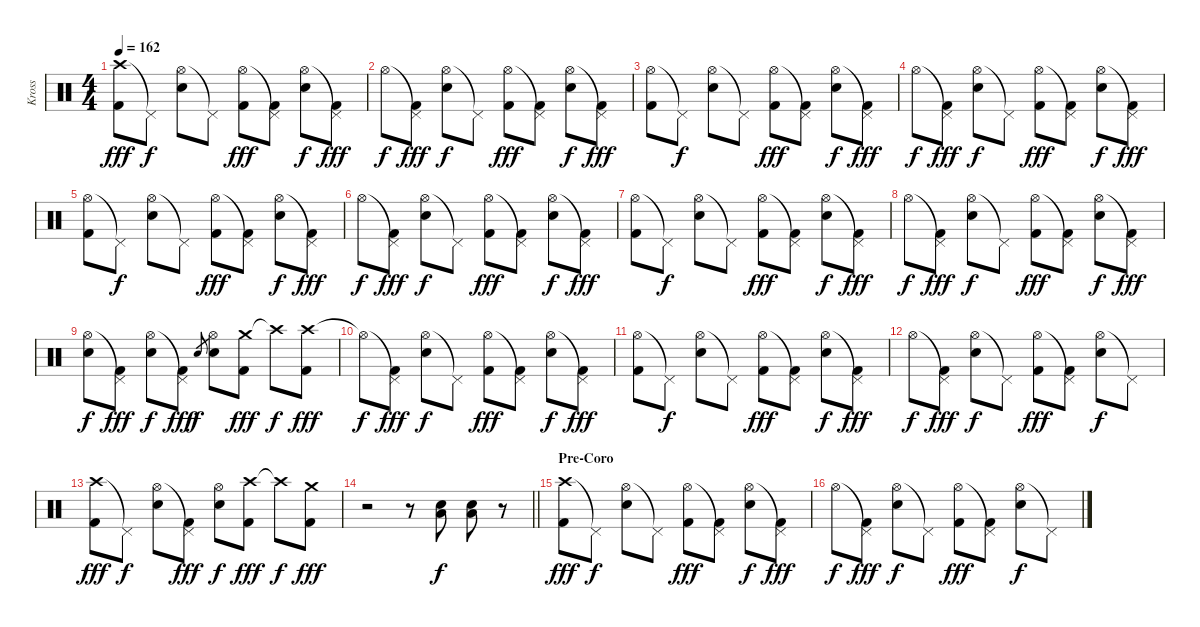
\track ("Kross" "Kross") {instrument percussion}
\staff {score}
\articulation defaults
\ts (4 4)
\tempo 162
\clef neutral
\ks c
("Crash high (hit)" "Kick (hit) 2").8{dy fff} "Pedal Hi-Hat (hit)"{t}.8{dy f} ("Hi-Hat (open)" "Electric Snare (hit)").8 "Pedal Hi-Hat (hit)"{t}.8 ("Hi-Hat (open)" "Kick (hit) 2").8{dy fff} ("Pedal Hi-Hat (hit)"{t} "Kick (hit) 2").8 ("Hi-Hat (open)" "Electric Snare (hit)").8{dy f} ("Pedal Hi-Hat (hit)"{t} "Kick (hit) 2").8{dy fff} |
"Hi-Hat (open)".8{dy f} ("Pedal Hi-Hat (hit)"{t} "Kick (hit) 2").8{dy fff} ("Hi-Hat (open)" "Electric Snare (hit)").8{dy f} "Pedal Hi-Hat (hit)"{t}.8 ("Hi-Hat (open)" "Kick (hit) 2").8{dy fff} ("Pedal Hi-Hat (hit)"{t} "Kick (hit) 2").8 ("Hi-Hat (open)" "Electric Snare (hit)").8{dy f} ("Pedal Hi-Hat (hit)"{t} "Kick (hit) 2").8{dy fff} |
("Hi-Hat (open)" "Kick (hit) 2").8 "Pedal Hi-Hat (hit)"{t}.8{dy f} ("Hi-Hat (open)" "Electric Snare (hit)").8 "Pedal Hi-Hat (hit)"{t}.8 ("Hi-Hat (open)" "Kick (hit) 2").8{dy fff} ("Pedal Hi-Hat (hit)"{t} "Kick (hit) 2").8 ("Hi-Hat (open)" "Electric Snare (hit)").8{dy f} ("Pedal Hi-Hat (hit)"{t} "Kick (hit) 2").8{dy fff} |
"Hi-Hat (open)".8{dy f} ("Pedal Hi-Hat (hit)"{t} "Kick (hit) 2").8{dy fff} ("Hi-Hat (open)" "Electric Snare (hit)").8{dy f} "Pedal Hi-Hat (hit)"{t}.8 ("Hi-Hat (open)" "Kick (hit) 2").8{dy fff} ("Pedal Hi-Hat (hit)"{t} "Kick (hit) 2").8 ("Hi-Hat (open)" "Electric Snare (hit)").8{dy f} ("Pedal Hi-Hat (hit)"{t} "Kick (hit) 2").8{dy fff} |
("Hi-Hat (open)" "Kick (hit) 2").8 "Pedal Hi-Hat (hit)"{t}.8{dy f} ("Hi-Hat (open)" "Electric Snare (hit)").8 "Pedal Hi-Hat (hit)"{t}.8 ("Hi-Hat (open)" "Kick (hit) 2").8{dy fff} ("Pedal Hi-Hat (hit)"{t} "Kick (hit) 2").8 ("Hi-Hat (open)" "Electric Snare (hit)").8{dy f} ("Pedal Hi-Hat (hit)"{t} "Kick (hit) 2").8{dy fff} |
"Hi-Hat (open)".8{dy f} ("Pedal Hi-Hat (hit)"{t} "Kick (hit) 2").8{dy fff} ("Hi-Hat (open)" "Electric Snare (hit)").8{dy f} "Pedal Hi-Hat (hit)"{t}.8 ("Hi-Hat (open)" "Kick (hit) 2").8{dy fff} ("Pedal Hi-Hat (hit)"{t} "Kick (hit) 2").8 ("Hi-Hat (open)" "Electric Snare (hit)").8{dy f} ("Pedal Hi-Hat (hit)"{t} "Kick (hit) 2").8{dy fff} |
("Hi-Hat (open)" "Kick (hit) 2").8 "Pedal Hi-Hat (hit)"{t}.8{dy f} ("Hi-Hat (open)" "Electric Snare (hit)").8 "Pedal Hi-Hat (hit)"{t}.8 ("Hi-Hat (open)" "Kick (hit) 2").8{dy fff} ("Pedal Hi-Hat (hit)"{t} "Kick (hit) 2").8 ("Hi-Hat (open)" "Electric Snare (hit)").8{dy f} ("Pedal Hi-Hat (hit)"{t} "Kick (hit) 2").8{dy fff} |
"Hi-Hat (open)".8{dy f} ("Pedal Hi-Hat (hit)"{t} "Kick (hit) 2").8{dy fff} ("Hi-Hat (open)" "Electric Snare (hit)").8{dy f} "Pedal Hi-Hat (hit)"{t}.8 ("Hi-Hat (open)" "Kick (hit) 2").8{dy fff} ("Pedal Hi-Hat (hit)"{t} "Kick (hit) 2").8 ("Hi-Hat (open)" "Electric Snare (hit)").8{dy f} ("Pedal Hi-Hat (hit)"{t} "Kick (hit) 2").8{dy fff} |
("Hi-Hat (open)" "Electric Snare (hit)").8{dy f} ("Pedal Hi-Hat (hit)"{t} "Kick (hit) 2").8{dy fff} ("Hi-Hat (open)" "Electric Snare (hit)").8{dy f} ("Pedal Hi-Hat (hit)"{t} "Kick (hit) 2").8{dy fff} "Electric Snare (hit)".8{gr dy f} ("Hi-Hat (open)" "Electric Snare (hit)").8 ("Crash medium (hit)" "Kick (hit) 2").8{dy fff} "Crash high (hit)"{t}.8{dy f} ("Crash high (hit)" "Kick (hit) 2").8{dy fff} |
"Hi-Hat (open)"{t}.8{dy f} ("Pedal Hi-Hat (hit)"{t} "Kick (hit) 2").8{dy fff} ("Hi-Hat (open)" "Electric Snare (hit)").8{dy f} "Pedal Hi-Hat (hit)"{t}.8 ("Hi-Hat (open)" "Kick (hit) 2").8{dy fff} ("Pedal Hi-Hat (hit)"{t} "Kick (hit) 2").8 ("Hi-Hat (open)" "Electric Snare (hit)").8{dy f} ("Pedal Hi-Hat (hit)"{t} "Kick (hit) 2").8{dy fff} |
("Hi-Hat (open)" "Kick (hit) 2").8 "Pedal Hi-Hat (hit)"{t}.8{dy f} ("Hi-Hat (open)" "Electric Snare (hit)").8 "Pedal Hi-Hat (hit)"{t}.8 ("Hi-Hat (open)" "Kick (hit) 2").8{dy fff} ("Pedal Hi-Hat (hit)"{t} "Kick (hit) 2").8 ("Hi-Hat (open)" "Electric Snare (hit)").8{dy f} ("Pedal Hi-Hat (hit)"{t} "Kick (hit) 2").8{dy fff} |
"Hi-Hat (open)".8{dy f} ("Pedal Hi-Hat (hit)"{t} "Kick (hit) 2").8{dy fff} ("Hi-Hat (open)" "Electric Snare (hit)").8{dy f} "Pedal Hi-Hat (hit)"{t}.8 ("Hi-Hat (open)" "Kick (hit) 2").8{dy fff} ("Pedal Hi-Hat (hit)"{t} "Kick (hit) 2").8 ("Hi-Hat (open)" "Electric Snare (hit)").8{dy f} "Pedal Hi-Hat (hit)"{t}.8 |
("Crash high (hit)" "Kick (hit) 2").8{dy fff} "Pedal Hi-Hat (hit)"{t}.8{dy f} ("Hi-Hat (open)" "Electric Snare (hit)").8 ("Pedal Hi-Hat (hit)"{t} "Kick (hit) 2").8{dy fff} ("Hi-Hat (open)" "Electric Snare (hit)").8{dy f} ("Crash high (hit)" "Kick (hit) 2").8{dy fff} "Crash high (hit)"{t}.8{dy f} ("Crash medium (hit)" "Kick (hit) 2").8{dy fff} |
\barLineRight lightlight
r.2 r.8 ("Electric Snare (hit)" "Low Floor Tom (hit)").8{dy f} ("Electric Snare (hit)" "Low Floor Tom (hit)").8 r.8 |
\section ("" "Pre-Coro")
("Crash high (hit)" "Kick (hit) 2").8{dy fff} "Pedal Hi-Hat (hit)"{t}.8{dy f} ("Hi-Hat (open)" "Electric Snare (hit)").8 "Pedal Hi-Hat (hit)"{t}.8 ("Hi-Hat (open)" "Kick (hit) 2").8{dy fff} ("Pedal Hi-Hat (hit)"{t} "Kick (hit) 2").8 ("Hi-Hat (open)" "Electric Snare (hit)").8{dy f} ("Pedal Hi-Hat (hit)"{t} "Kick (hit) 2").8{dy fff} |
"Hi-Hat (open)".8{dy f} ("Pedal Hi-Hat (hit)"{t} "Kick (hit) 2").8{dy fff} ("Hi-Hat (open)" "Electric Snare (hit)").8{dy f} "Pedal Hi-Hat (hit)"{t}.8 ("Hi-Hat (open)" "Kick (hit) 2").8{dy fff} ("Pedal Hi-Hat (hit)"{t} "Kick (hit) 2").8 ("Hi-Hat (open)" "Electric Snare (hit)").8{dy f} "Pedal Hi-Hat (hit)"{t}.8
